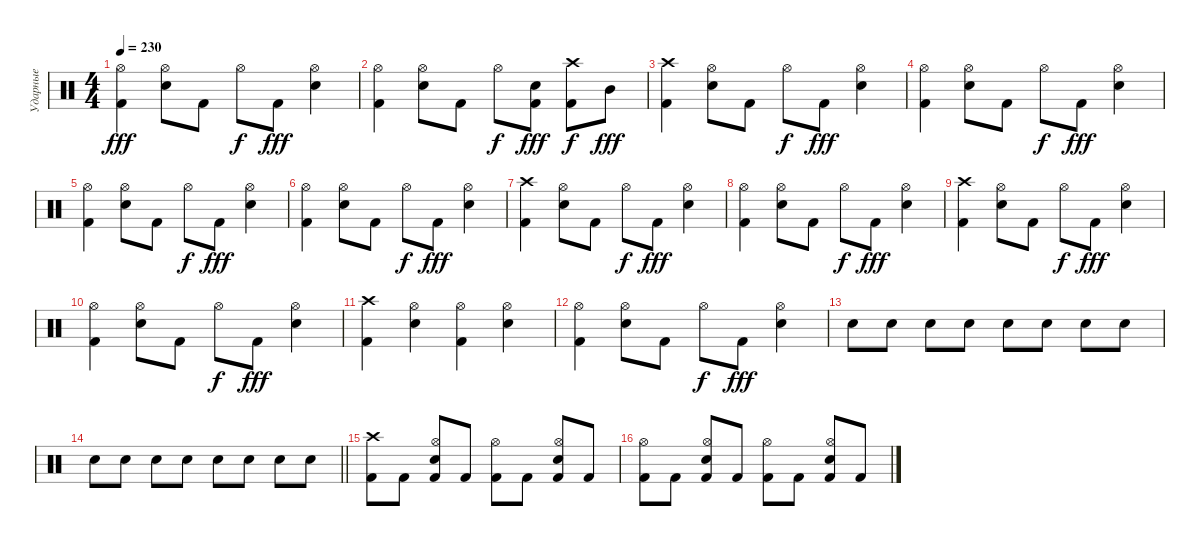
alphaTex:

\track ("Ударные" "Ударные") {instrument percussion}
\staff {score}
\articulation defaults
\ts (4 4)
\tempo 230
\clef neutral
\ks c
("Kick (hit) 2" "Hi-Hat (open)").4{dy fff} ("Snare (hit) 2" "Hi-Hat (open)").8 "Kick (hit) 2".8 "Hi-Hat (open)".8{dy f} "Kick (hit) 2".8{dy fff} ("Snare (hit) 2" "Hi-Hat (open)").4 |
("Kick (hit) 2" "Hi-Hat (open)").4 ("Snare (hit) 2" "Hi-Hat (open)").8 "Kick (hit) 2".8 "Hi-Hat (open)".8{dy f} ("Kick (hit) 2" "Snare (hit) 2").8{dy fff} ("Kick (hit) 2" "Crash high (hit)").8{dy f} "Mid Tom (hit)".8{dy fff} |
("Kick (hit) 2" "Crash high (hit)").4 ("Snare (hit) 2" "Hi-Hat (open)").8 "Kick (hit) 2".8 "Hi-Hat (open)".8{dy f} "Kick (hit) 2".8{dy fff} ("Snare (hit) 2" "Hi-Hat (open)").4 |
("Kick (hit) 2" "Hi-Hat (open)").4 ("Snare (hit) 2" "Hi-Hat (open)").8 "Kick (hit) 2".8 "Hi-Hat (open)".8{dy f} "Kick (hit) 2".8{dy fff} ("Snare (hit) 2" "Hi-Hat (open)").4 |
("Kick (hit) 2" "Hi-Hat (open)").4 ("Snare (hit) 2" "Hi-Hat (open)").8 "Kick (hit) 2".8 "Hi-Hat (open)".8{dy f} "Kick (hit) 2".8{dy fff} ("Snare (hit) 2" "Hi-Hat (open)").4 |
("Kick (hit) 2" "Hi-Hat (open)").4 ("Snare (hit) 2" "Hi-Hat (open)").8 "Kick (hit) 2".8 "Hi-Hat (open)".8{dy f} "Kick (hit) 2".8{dy fff} ("Snare (hit) 2" "Hi-Hat (open)").4 |
("Kick (hit) 2" "Crash high (hit)").4 ("Snare (hit) 2" "Hi-Hat (open)").8 "Kick (hit) 2".8 "Hi-Hat (open)".8{dy f} "Kick (hit) 2".8{dy fff} ("Snare (hit) 2" "Hi-Hat (open)").4 |
("Kick (hit) 2" "Hi-Hat (open)").4 ("Snare (hit) 2" "Hi-Hat (open)").8 "Kick (hit) 2".8 "Hi-Hat (open)".8{dy f} "Kick (hit) 2".8{dy fff} ("Snare (hit) 2" "Hi-Hat (open)").4 |
("Kick (hit) 2" "Crash high (hit)").4 ("Snare (hit) 2" "Hi-Hat (open)").8 "Kick (hit) 2".8 "Hi-Hat (open)".8{dy f} "Kick (hit) 2".8{dy fff} ("Snare (hit) 2" "Hi-Hat (open)").4 |
("Kick (hit) 2" "Hi-Hat (open)").4 ("Snare (hit) 2" "Hi-Hat (open)").8 "Kick (hit) 2".8 "Hi-Hat (open)".8{dy f} "Kick (hit) 2".8{dy fff} ("Snare (hit) 2" "Hi-Hat (open)").4 |
("Kick (hit) 2" "Crash high (hit)").4 ("Snare (hit) 2" "Hi-Hat (open)").4 ("Kick (hit) 2" "Hi-Hat (open)").4 ("Snare (hit) 2" "Hi-Hat (open)").4 |
("Kick (hit) 2" "Hi-Hat (open)").4 ("Snare (hit) 2" "Hi-Hat (open)").8 "Kick (hit) 2".8 "Hi-Hat (open)".8{dy f} "Kick (hit) 2".8{dy fff} ("Snare (hit) 2" "Hi-Hat (open)").4 |
"Snare (hit) 2".8 "Snare (hit) 2".8 "Snare (hit) 2".8 "Snare (hit) 2".8 "Snare (hit) 2".8 "Snare (hit) 2".8 "Snare (hit) 2".8 "Snare (hit) 2".8 |
\barLineRight lightlight "Snare (hit) 2".8 "Snare (hit) 2".8 "Snare (hit) 2".8 "Snare (hit) 2".8 "Snare (hit) 2".8 "Snare (hit) 2".8 "Snare (hit) 2".8 "Snare (hit) 2".8
|
("Kick (hit) 2" "Crash high (hit)").8 "Kick (hit) 2".8 ("Kick (hit) 2" "Snare (hit) 2" "Hi-Hat (open)").8 "Kick (hit) 2".8 ("Kick (hit) 2" "Hi-Hat (open)").8 "Kick (hit) 2".8 ("Kick (hit) 2" "Snare (hit) 2" "Hi-Hat (open)").8 "Kick (hit) 2".8 |
("Kick (hit) 2" "Hi-Hat (open)").8 "Kick (hit) 2".8 ("Kick (hit) 2" "Snare (hit) 2" "Hi-Hat (open)").8 "Kick (hit) 2".8 ("Kick (hit) 2" "Hi-Hat (open)").8 "Kick (hit) 2".8 ("Kick (hit) 2" "Snare (hit) 2" "Hi-Hat (open)").8 "Kick (hit) 2".8
